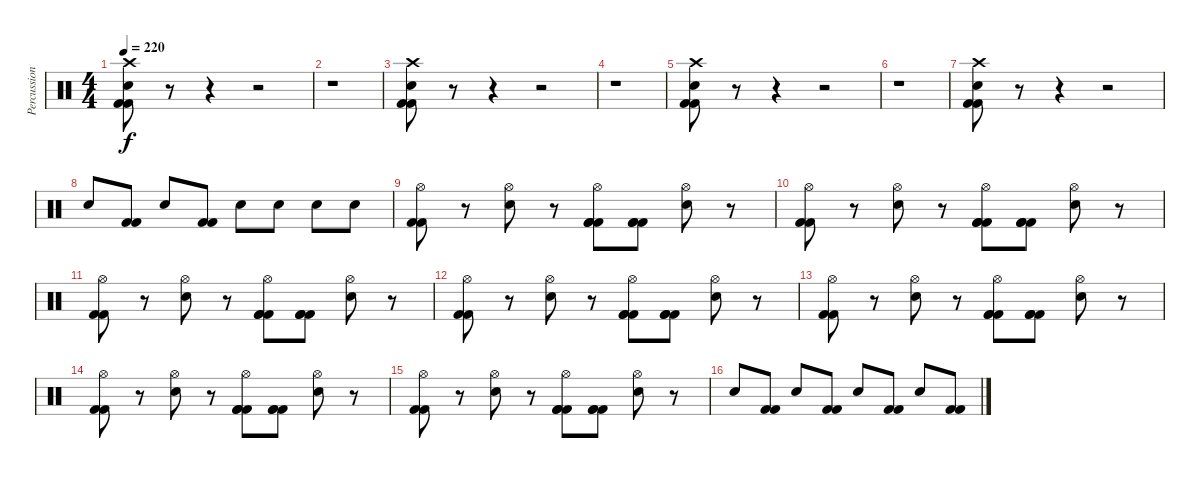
\track ("Percussion" "Percussion") {instrument percussion}
\staff {score}
\articulation defaults
\ts (4 4)
\tempo 220
\clef neutral
\ks c
("Crash high (hit)" "Electric Snare (hit)" "Kick (hit) 2" "Kick (hit) 2").8{dy f} r.8 r.4 r.2 |
r.1 |
("Crash high (hit)" "Electric Snare (hit)" "Kick (hit) 2" "Kick (hit) 2").8 r.8 r.4 r.2 |
r.1 |
("Crash high (hit)" "Electric Snare (hit)" "Kick (hit) 2" "Kick (hit) 2").8 r.8 r.4 r.2 |
r.1 |
("Crash high (hit)" "Electric Snare (hit)" "Kick (hit) 2" "Kick (hit) 2").8 r.8 r.4 r.2 |
"Electric Snare (hit)".8 ("Kick (hit) 2" "Kick (hit) 2").8 "Electric Snare (hit)".8 ("Kick (hit) 2" "Kick (hit) 2").8 "Electric Snare (hit)".8 "Electric Snare (hit)".8 "Electric Snare (hit)".8 "Electric Snare (hit)".8 |
("Hi-Hat (open)" "Kick (hit) 2" "Kick (hit) 2").8 r.8 ("Hi-Hat (open)" "Electric Snare (hit)").8 r.8 ("Hi-Hat (open)" "Kick (hit) 2" "Kick (hit) 2" "Kick (hit) 2").8 ("Kick (hit) 2" "Kick (hit) 2" "Kick (hit) 2").8 ("Hi-Hat (open)" "Electric Snare (hit)").8 r.8 |
("Hi-Hat (open)" "Kick (hit) 2" "Kick (hit) 2").8 r.8 ("Hi-Hat (open)" "Electric Snare (hit)").8 r.8 ("Hi-Hat (open)" "Kick (hit) 2" "Kick (hit) 2" "Kick (hit) 2").8 ("Kick (hit) 2" "Kick (hit) 2" "Kick (hit) 2").8 ("Hi-Hat (open)" "Electric Snare (hit)").8 r.8 |
("Hi-Hat (open)" "Kick (hit) 2" "Kick (hit) 2").8 r.8 ("Hi-Hat (open)" "Electric Snare (hit)").8 r.8 ("Hi-Hat (open)" "Kick (hit) 2" "Kick (hit) 2" "Kick (hit) 2").8 ("Kick (hit) 2" "Kick (hit) 2" "Kick (hit) 2").8 ("Hi-Hat (open)" "Electric Snare (hit)").8 r.8 |
("Hi-Hat (open)" "Kick (hit) 2" "Kick (hit) 2").8 r.8 ("Hi-Hat (open)" "Electric Snare (hit)").8 r.8 ("Hi-Hat (open)" "Kick (hit) 2" "Kick (hit) 2" "Kick (hit) 2").8 ("Kick (hit) 2" "Kick (hit) 2" "Kick (hit) 2").8 ("Hi-Hat (open)" "Electric Snare (hit)").8 r.8 |
("Hi-Hat (open)" "Kick (hit) 2" "Kick (hit) 2").8 r.8 ("Hi-Hat (open)" "Electric Snare (hit)").8 r.8 ("Hi-Hat (open)" "Kick (hit) 2" "Kick (hit) 2" "Kick (hit) 2").8 ("Kick (hit) 2" "Kick (hit) 2" "Kick (hit) 2").8 ("Hi-Hat (open)" "Electric Snare (hit)").8 r.8 |
("Hi-Hat (open)" "Kick (hit) 2" "Kick (hit) 2").8 r.8 ("Hi-Hat (open)" "Electric Snare (hit)").8 r.8 ("Hi-Hat (open)" "Kick (hit) 2" "Kick (hit) 2" "Kick (hit) 2").8 ("Kick (hit) 2" "Kick (hit) 2" "Kick (hit) 2").8 ("Hi-Hat (open)" "Electric Snare (hit)").8 r.8 |
("Hi-Hat (open)" "Kick (hit) 2" "Kick (hit) 2").8 r.8 ("Hi-Hat (open)" "Electric Snare (hit)").8 r.8 ("Hi-Hat (open)" "Kick (hit) 2" "Kick (hit) 2" "Kick (hit) 2").8 ("Kick (hit) 2" "Kick (hit) 2" "Kick (hit) 2").8 ("Hi-Hat (open)" "Electric Snare (hit)").8 r.8 |
"Electric Snare (hit)".8 ("Kick (hit) 2" "Kick (hit) 2").8 "Electric Snare (hit)".8 ("Kick (hit) 2" "Kick (hit) 2").8 "Electric Snare (hit)".8 ("Kick (hit) 2" "Kick (hit) 2").8 "Electric Snare (hit)".8 ("Kick (hit) 2" "Kick (hit) 2").8
